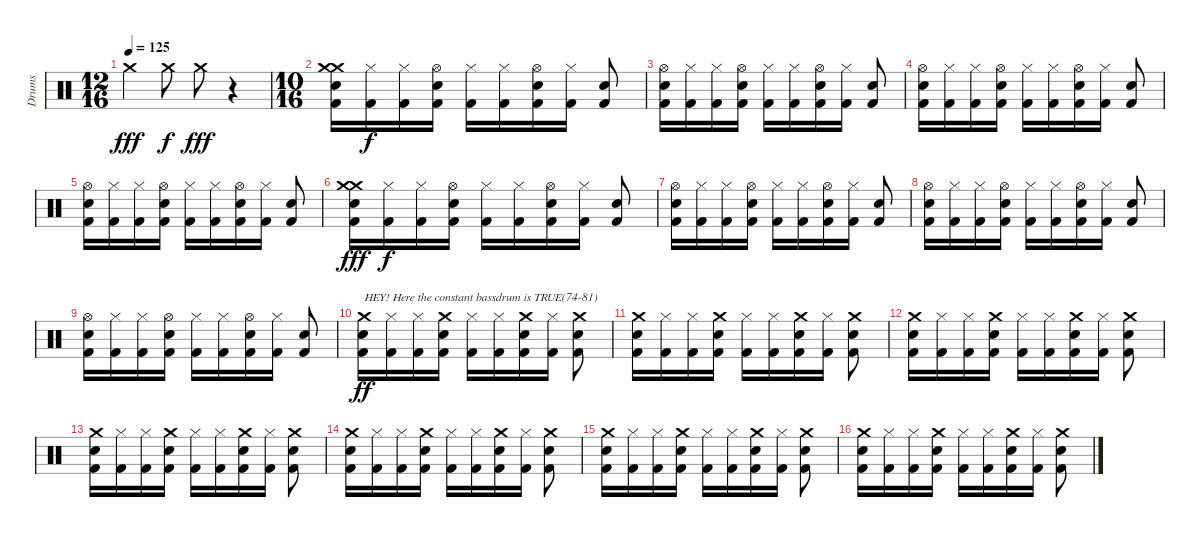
\track ("Drums" "Drums") {instrument percussion}
\staff {score}
\articulation defaults
\ts (12 16)
\tempo 125
\clef neutral
\ks c "Crash medium (hit)".4{dy fff} "Crash medium (hit)".8{dy f} "Crash medium (hit)".8{dy fff}
r.4 |
\ts (10 16)
("Kick (hit) 2" "Electric Snare (hit)" "Crash medium (hit)" "Crash medium (hit)").16 ("Kick (hit) 2" "Hi-Hat (closed)").16{dy f} ("Kick (hit) 2" "Hi-Hat (closed)").16 ("Kick (hit) 2" "Electric Snare (hit)" "Hi-Hat (open)").16 ("Kick (hit) 2" "Hi-Hat (closed)").16 ("Kick (hit) 2" "Hi-Hat (closed)").16 ("Kick (hit) 2" "Electric Snare (hit)" "Hi-Hat (open)").16 ("Kick (hit) 2" "Hi-Hat (closed)").16 ("Kick (hit) 2" "Electric Snare (hit)").8 |
("Kick (hit) 2" "Electric Snare (hit)" "Hi-Hat (open)").16 ("Kick (hit) 2" "Hi-Hat (closed)").16 ("Kick (hit) 2" "Hi-Hat (closed)").16 ("Kick (hit) 2" "Electric Snare (hit)" "Hi-Hat (open)").16 ("Kick (hit) 2" "Hi-Hat (closed)").16 ("Kick (hit) 2" "Hi-Hat (closed)").16 ("Kick (hit) 2" "Electric Snare (hit)" "Hi-Hat (open)").16 ("Kick (hit) 2" "Hi-Hat (closed)").16 ("Kick (hit) 2" "Electric Snare (hit)").8 |
("Kick (hit) 2" "Electric Snare (hit)" "Hi-Hat (open)").16 ("Kick (hit) 2" "Hi-Hat (closed)").16 ("Kick (hit) 2" "Hi-Hat (closed)").16 ("Kick (hit) 2" "Electric Snare (hit)" "Hi-Hat (open)").16 ("Kick (hit) 2" "Hi-Hat (closed)").16 ("Kick (hit) 2" "Hi-Hat (closed)").16 ("Kick (hit) 2" "Electric Snare (hit)" "Hi-Hat (open)").16 ("Kick (hit) 2" "Hi-Hat (closed)").16 ("Kick (hit) 2" "Electric Snare (hit)").8 |
("Kick (hit) 2" "Electric Snare (hit)" "Hi-Hat (open)").16 ("Kick (hit) 2" "Hi-Hat (closed)").16 ("Kick (hit) 2" "Hi-Hat (closed)").16 ("Kick (hit) 2" "Electric Snare (hit)" "Hi-Hat (open)").16 ("Kick (hit) 2" "Hi-Hat (closed)").16 ("Kick (hit) 2" "Hi-Hat (closed)").16 ("Kick (hit) 2" "Electric Snare (hit)" "Hi-Hat (open)").16 ("Kick (hit) 2" "Hi-Hat (closed)").16 ("Kick (hit) 2" "Electric Snare (hit)").8 |
("Kick (hit) 2" "Electric Snare (hit)" "Crash medium (hit)" "Crash medium (hit)").16{dy fff} ("Kick (hit) 2" "Hi-Hat (closed)").16{dy f} ("Kick (hit) 2" "Hi-Hat (closed)").16 ("Kick (hit) 2" "Electric Snare (hit)" "Hi-Hat (open)").16 ("Kick (hit) 2" "Hi-Hat (closed)").16 ("Kick (hit) 2" "Hi-Hat (closed)").16 ("Kick (hit) 2" "Electric Snare (hit)" "Hi-Hat (open)").16 ("Kick (hit) 2" "Hi-Hat (closed)").16 ("Kick (hit) 2" "Electric Snare (hit)").8 |
("Kick (hit) 2" "Electric Snare (hit)" "Hi-Hat (open)").16 ("Kick (hit) 2" "Hi-Hat (closed)").16 ("Kick (hit) 2" "Hi-Hat (closed)").16 ("Kick (hit) 2" "Electric Snare (hit)" "Hi-Hat (open)").16 ("Kick (hit) 2" "Hi-Hat (closed)").16 ("Kick (hit) 2" "Hi-Hat (closed)").16 ("Kick (hit) 2" "Electric Snare (hit)" "Hi-Hat (open)").16 ("Kick (hit) 2" "Hi-Hat (closed)").16 ("Kick (hit) 2" "Electric Snare (hit)").8 |
("Kick (hit) 2" "Electric Snare (hit)" "Hi-Hat (open)").16 ("Kick (hit) 2" "Hi-Hat (closed)").16 ("Kick (hit) 2" "Hi-Hat (closed)").16 ("Kick (hit) 2" "Electric Snare (hit)" "Hi-Hat (open)").16 ("Kick (hit) 2" "Hi-Hat (closed)").16 ("Kick (hit) 2" "Hi-Hat (closed)").16 ("Kick (hit) 2" "Electric Snare (hit)" "Hi-Hat (open)").16 ("Kick (hit) 2" "Hi-Hat (closed)").16 ("Kick (hit) 2" "Electric Snare (hit)").8 |
("Kick (hit) 2" "Electric Snare (hit)" "Hi-Hat (open)").16 ("Kick (hit) 2" "Hi-Hat (closed)").16 ("Kick (hit) 2" "Hi-Hat (closed)").16 ("Kick (hit) 2" "Electric Snare (hit)" "Hi-Hat (open)").16 ("Kick (hit) 2" "Hi-Hat (closed)").16 ("Kick (hit) 2" "Hi-Hat (closed)").16 ("Kick (hit) 2" "Electric Snare (hit)" "Hi-Hat (open)").16 ("Kick (hit) 2" "Hi-Hat (closed)").16 ("Kick (hit) 2" "Electric Snare (hit)").8 |
("Kick (hit) 2" "Electric Snare (hit)" "Crash medium (hit)").16{txt "HEY! Here the constant bassdrum is TRUE(74-81)" dy ff} ("Kick (hit) 2" "Hi-Hat (closed)").16 ("Kick (hit) 2" "Hi-Hat (closed)").16 ("Kick (hit) 2" "Electric Snare (hit)" "Crash medium (hit)").16 ("Kick (hit) 2" "Hi-Hat (closed)").16 ("Kick (hit) 2" "Hi-Hat (closed)").16 ("Kick (hit) 2" "Electric Snare (hit)" "Crash medium (hit)").16 ("Kick (hit) 2" "Hi-Hat (closed)").16 ("Kick (hit) 2" "Electric Snare (hit)" "Crash medium (hit)").8 |
("Kick (hit) 2" "Electric Snare (hit)" "Crash medium (hit)").16 ("Kick (hit) 2" "Hi-Hat (closed)").16 ("Kick (hit) 2" "Hi-Hat (closed)").16 ("Kick (hit) 2" "Electric Snare (hit)" "Crash medium (hit)").16 ("Kick (hit) 2" "Hi-Hat (closed)").16 ("Kick (hit) 2" "Hi-Hat (closed)").16 ("Kick (hit) 2" "Electric Snare (hit)" "Crash medium (hit)").16 ("Kick (hit) 2" "Hi-Hat (closed)").16 ("Kick (hit) 2" "Electric Snare (hit)" "Crash medium (hit)").8 |
("Kick (hit) 2" "Electric Snare (hit)" "Crash medium (hit)").16 ("Kick (hit) 2" "Hi-Hat (closed)").16 ("Kick (hit) 2" "Hi-Hat (closed)").16 ("Kick (hit) 2" "Electric Snare (hit)" "Crash medium (hit)").16 ("Kick (hit) 2" "Hi-Hat (closed)").16 ("Kick (hit) 2" "Hi-Hat (closed)").16 ("Kick (hit) 2" "Electric Snare (hit)" "Crash medium (hit)").16 ("Kick (hit) 2" "Hi-Hat (closed)").16 ("Kick (hit) 2" "Electric Snare (hit)" "Crash medium (hit)").8 |
("Kick (hit) 2" "Electric Snare (hit)" "Crash medium (hit)").16 ("Kick (hit) 2" "Hi-Hat (closed)").16 ("Kick (hit) 2" "Hi-Hat (closed)").16 ("Kick (hit) 2" "Electric Snare (hit)" "Crash medium (hit)").16 ("Kick (hit) 2" "Hi-Hat (closed)").16 ("Kick (hit) 2" "Hi-Hat (closed)").16 ("Kick (hit) 2" "Electric Snare (hit)" "Crash medium (hit)").16 ("Kick (hit) 2" "Hi-Hat (closed)").16 ("Kick (hit) 2" "Electric Snare (hit)" "Crash medium (hit)").8 |
("Kick (hit) 2" "Electric Snare (hit)" "Crash medium (hit)").16 ("Kick (hit) 2" "Hi-Hat (closed)").16 ("Kick (hit) 2" "Hi-Hat (closed)").16 ("Kick (hit) 2" "Electric Snare (hit)" "Crash medium (hit)").16 ("Kick (hit) 2" "Hi-Hat (closed)").16 ("Kick (hit) 2" "Hi-Hat (closed)").16 ("Kick (hit) 2" "Electric Snare (hit)" "Crash medium (hit)").16 ("Kick (hit) 2" "Hi-Hat (closed)").16 ("Kick (hit) 2" "Electric Snare (hit)" "Crash medium (hit)").8 |
("Kick (hit) 2" "Electric Snare (hit)" "Crash medium (hit)").16 ("Kick (hit) 2" "Hi-Hat (closed)").16 ("Kick (hit) 2" "Hi-Hat (closed)").16 ("Kick (hit) 2" "Electric Snare (hit)" "Crash medium (hit)").16 ("Kick (hit) 2" "Hi-Hat (closed)").16 ("Kick (hit) 2" "Hi-Hat (closed)").16 ("Kick (hit) 2" "Electric Snare (hit)" "Crash medium (hit)").16 ("Kick (hit) 2" "Hi-Hat (closed)").16 ("Kick (hit) 2" "Electric Snare (hit)" "Crash medium (hit)").8 |
("Kick (hit) 2" "Electric Snare (hit)" "Crash medium (hit)").16 ("Kick (hit) 2" "Hi-Hat (closed)").16 ("Kick (hit) 2" "Hi-Hat (closed)").16 ("Kick (hit) 2" "Electric Snare (hit)" "Crash medium (hit)").16 ("Kick (hit) 2" "Hi-Hat (closed)").16 ("Kick (hit) 2" "Hi-Hat (closed)").16 ("Kick (hit) 2" "Electric Snare (hit)" "Crash medium (hit)").16 ("Kick (hit) 2" "Hi-Hat (closed)").16 ("Kick (hit) 2" "Electric Snare (hit)" "Crash medium (hit)").8
